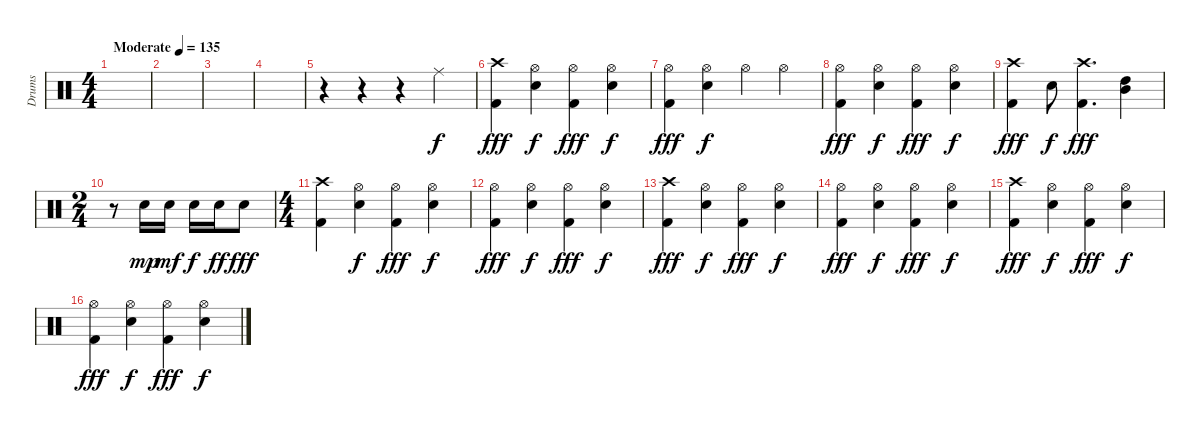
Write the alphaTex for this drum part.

\track ("Drums" "Drums") {instrument percussion}
\staff {score}
\articulation defaults
\ts (4 4)
\tempo (135 "Moderate")
\clef neutral
\ks c
|
|
|
|
r.4 r.4 r.4 "Ride (middle)".4 |
("Crash high (hit)" "Kick (hit) 2").4{dy fff} ("Hi-Hat (open)" "Snare (hit) 2").4{dy f} ("Hi-Hat (open)" "Kick (hit) 2").4{dy fff} ("Hi-Hat (open)" "Snare (hit) 2").4{dy f} |
("Hi-Hat (open)" "Kick (hit) 2").4{dy fff} ("Hi-Hat (open)" "Snare (hit) 2").4{dy f} "Hi-Hat (open)".4 "Hi-Hat (open)".4 |
("Hi-Hat (open)" "Kick (hit) 2").4{dy fff} ("Hi-Hat (open)" "Snare (hit) 2").4{dy f} ("Hi-Hat (open)" "Kick (hit) 2").4{dy fff} ("Hi-Hat (open)" "Snare (hit) 2").4{dy f} |
("Kick (hit) 2" "Crash high (hit)").4{dy fff} "Snare (hit) 2".8{dy f} ("Kick (hit) 2" "Crash high (hit)").4{d dy fff} ("Mid Tom (hit)" "High Tom (hit)").4 |
\ts (2 4)
r.8 "Snare (hit) 2".16{dy mp} "Snare (hit) 2".16{dy mf} "Snare (hit) 2".16{dy f} "Snare (hit) 2".16{dy ff} "Snare (hit) 2".8{dy fff} |
\ts (4 4)
("Crash high (hit)" "Kick (hit) 2").4 ("Hi-Hat (open)" "Snare (hit) 2").4{dy f} ("Hi-Hat (open)" "Kick (hit) 2").4{dy fff} ("Hi-Hat (open)" "Snare (hit) 2").4{dy f} |
("Hi-Hat (open)" "Kick (hit) 2").4{dy fff} ("Hi-Hat (open)" "Snare (hit) 2").4{dy f} ("Hi-Hat (open)" "Kick (hit) 2").4{dy fff} ("Hi-Hat (open)" "Snare (hit) 2").4{dy f} |
("Crash high (hit)" "Kick (hit) 2").4{dy fff} ("Hi-Hat (open)" "Snare (hit) 2").4{dy f} ("Hi-Hat (open)" "Kick (hit) 2").4{dy fff} ("Hi-Hat (open)" "Snare (hit) 2").4{dy f} |
("Hi-Hat (open)" "Kick (hit) 2").4{dy fff} ("Hi-Hat (open)" "Snare (hit) 2").4{dy f} ("Hi-Hat (open)" "Kick (hit) 2").4{dy fff} ("Hi-Hat (open)" "Snare (hit) 2").4{dy f} |
("Crash high (hit)" "Kick (hit) 2").4{dy fff} ("Hi-Hat (open)" "Snare (hit) 2").4{dy f} ("Hi-Hat (open)" "Kick (hit) 2").4{dy fff} ("Hi-Hat (open)" "Snare (hit) 2").4{dy f} |
("Hi-Hat (open)" "Kick (hit) 2").4{dy fff} ("Hi-Hat (open)" "Snare (hit) 2").4{dy f} ("Hi-Hat (open)" "Kick (hit) 2").4{dy fff} ("Hi-Hat (open)" "Snare (hit) 2").4{dy f}
